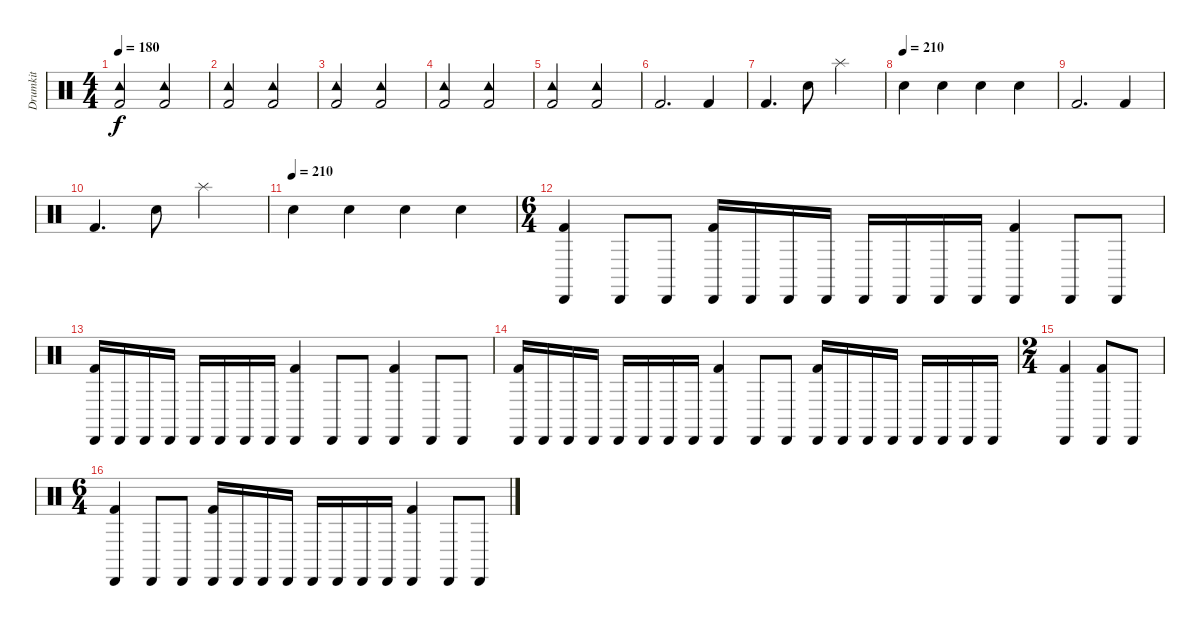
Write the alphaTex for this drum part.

\track ("Drumkit" "Drumkit") {instrument percussion}
\staff {score}
\articulation defaults
\ts (4 4)
\tempo 180
\clef neutral
\ks c
("Tambourine (hit)" "Kick (hit) 2").2{dy f} ("Tambourine (hit)" "Kick (hit) 2").2 |
("Tambourine (hit)" "Kick (hit) 2").2 ("Tambourine (hit)" "Kick (hit) 2").2 |
("Tambourine (hit)" "Kick (hit) 2").2 ("Tambourine (hit)" "Kick (hit) 2").2 |
("Tambourine (hit)" "Kick (hit) 2").2 ("Tambourine (hit)" "Kick (hit) 2").2 |
("Tambourine (hit)" "Kick (hit) 2").2 ("Tambourine (hit)" "Kick (hit) 2").2 |
"Kick (hit) 2".2{d} "Kick (hit) 2".4 |
"Kick (hit) 2".4{d} "Electric Snare (hit)".8 "Splash (hit)".2 |
\tempo (210)
"Electric Snare (hit)".4 "Electric Snare (hit)".4 "Electric Snare (hit)".4 "Electric Snare (hit)".4 |
"Kick (hit) 2".2{d} "Kick (hit) 2".4 |
"Kick (hit) 2".4{d} "Electric Snare (hit)".8 "Splash (hit)".2 |
\tempo (210)
"Electric Snare (hit)".4 "Electric Snare (hit)".4 "Electric Snare (hit)".4 "Electric Snare (hit)".4 |
\ts (6 4)
("Cabasa (hit)" "Kick (hit) 2").4 "Cabasa (hit)".8 "Cabasa (hit)".8 ("Cabasa (hit)" "Kick (hit) 2").16 "Cabasa (hit)".16 "Cabasa (hit)".16 "Cabasa (hit)".16 "Cabasa (hit)".16 "Cabasa (hit)".16 "Cabasa (hit)".16 "Cabasa (hit)".16 ("Cabasa (hit)" "Kick (hit) 2").4 "Cabasa (hit)".8 "Cabasa (hit)".8 |
("Cabasa (hit)" "Kick (hit) 2").16 "Cabasa (hit)".16 "Cabasa (hit)".16 "Cabasa (hit)".16 "Cabasa (hit)".16 "Cabasa (hit)".16 "Cabasa (hit)".16 "Cabasa (hit)".16 ("Cabasa (hit)" "Kick (hit) 2").4 "Cabasa (hit)".8 "Cabasa (hit)".8 ("Cabasa (hit)" "Kick (hit) 2").4 "Cabasa (hit)".8 "Cabasa (hit)".8 |
("Cabasa (hit)" "Kick (hit) 2").16 "Cabasa (hit)".16 "Cabasa (hit)".16 "Cabasa (hit)".16 "Cabasa (hit)".16 "Cabasa (hit)".16 "Cabasa (hit)".16 "Cabasa (hit)".16 ("Cabasa (hit)" "Kick (hit) 2").4 "Cabasa (hit)".8 "Cabasa (hit)".8 ("Cabasa (hit)" "Kick (hit) 2").16 "Cabasa (hit)".16 "Cabasa (hit)".16 "Cabasa (hit)".16 "Cabasa (hit)".16 "Cabasa (hit)".16 "Cabasa (hit)".16 "Cabasa (hit)".16 |
\ts (2 4)
("Cabasa (hit)" "Kick (hit) 2").4 ("Cabasa (hit)" "Kick (hit) 2").8 "Cabasa (hit)".8 |
\ts (6 4)
("Cabasa (hit)" "Kick (hit) 2").4 "Cabasa (hit)".8 "Cabasa (hit)".8 ("Cabasa (hit)" "Kick (hit) 2").16 "Cabasa (hit)".16 "Cabasa (hit)".16 "Cabasa (hit)".16 "Cabasa (hit)".16 "Cabasa (hit)".16 "Cabasa (hit)".16 "Cabasa (hit)".16 ("Cabasa (hit)" "Kick (hit) 2").4 "Cabasa (hit)".8 "Cabasa (hit)".8
